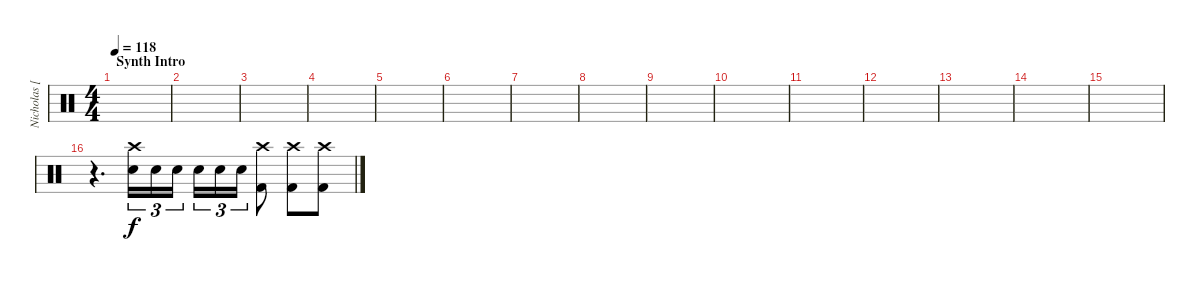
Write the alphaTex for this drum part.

\track ("Nicholas [Percussion]" "Nicholas [") {instrument percussion}
\staff {score}
\articulation defaults
\ts (4 4)
\section ("" "Synth Intro")
\tempo 118
\clef neutral
\ks c
|
|
|
|
|
|
|
|
|
|
|
|
|
|
|
r.4{d} ("Snare (hit) 2" "Crash high (hit)").16{tu (3 2)} "Snare (hit) 2".16{tu (3 2)} "Snare (hit) 2".16{tu (3 2)} "Snare (hit) 2".16{tu (3 2)} "Snare (hit) 2".16{tu (3 2)} "Snare (hit) 2".16{tu (3 2)} ("Kick (hit) 2" "Crash high (hit)").8 ("Kick (hit) 2" "Crash high (hit)").8 ("Kick (hit) 2" "Crash high (hit)").8
